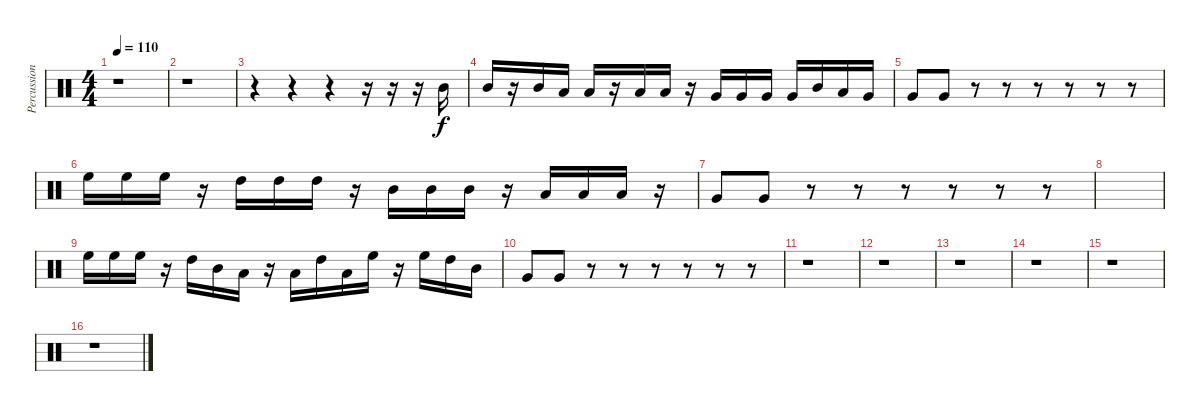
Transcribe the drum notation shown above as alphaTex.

\track ("Percussion" "Percussion") {instrument percussion}
\staff {score}
\articulation defaults
\ts (4 4)
\tempo 110
\clef neutral
\ks c
r.1{dy f} |
r.1 |
r.4 r.4 r.4 r.16 r.16 r.16 "Mid Tom (hit)".16 |
"Mid Tom (hit)".16 r.16 "Mid Tom (hit)".16 "Low Tom (hit)".16 "Low Tom (hit)".16 r.16 "Low Tom (hit)".16 "Low Tom (hit)".16 r.16 "Very Low Tom (hit)".16 "Very Low Tom (hit)".16 "Very Low Tom (hit)".16 "Very Low Tom (hit)".16 "Mid Tom (hit)".16 "Low Tom (hit)".16 "Very Low Tom (hit)".16 |
"Very Low Tom (hit)".8 "Very Low Tom (hit)".8 r.8 r.8 r.8 r.8 r.8 r.8 |
"High Floor Tom (hit)".16 "High Floor Tom (hit)".16 "High Floor Tom (hit)".16 r.16 "High Tom (hit)".16 "High Tom (hit)".16 "High Tom (hit)".16 r.16 "Mid Tom (hit)".16 "Mid Tom (hit)".16 "Mid Tom (hit)".16 r.16 "Low Tom (hit)".16 "Low Tom (hit)".16 "Low Tom (hit)".16 r.16 |
"Very Low Tom (hit)".8 "Very Low Tom (hit)".8 r.8 r.8 r.8 r.8 r.8 r.8 |
|
"High Floor Tom (hit)".16 "High Floor Tom (hit)".16 "High Floor Tom (hit)".16 r.16 "High Tom (hit)".16 "Mid Tom (hit)".16 "Low Tom (hit)".16 r.16 "Low Tom (hit)".16 "High Tom (hit)".16 "Low Tom (hit)".16 "High Floor Tom (hit)".16 r.16 "High Floor Tom (hit)".16 "High Tom (hit)".16 "Mid Tom (hit)".16 |
"Very Low Tom (hit)".8 "Very Low Tom (hit)".8 r.8 r.8 r.8 r.8 r.8 r.8 |
r.1 |
r.1 |
r.1 |
r.1 |
r.1 |
r.1
